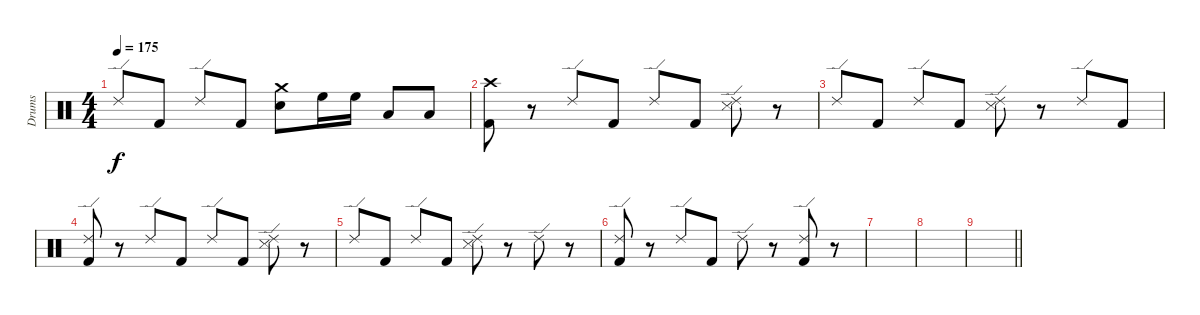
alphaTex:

\track ("Drums" "Drums") {instrument percussion}
\staff {score}
\articulation defaults
\ts (4 4)
\tempo 175
\clef neutral
\ks c "Ride (edge) 2".8{dy f} "Kick (hit) 2".8 "Ride (edge) 2".8 "Kick (hit) 2".8
("Crash medium (hit)" "Snare (hit) 2").8 "High Floor Tom (hit)".16 "High Floor Tom (hit)".16 "Low Floor Tom (hit)".8 "Low Floor Tom (hit)".8 |
("Crash high (hit)" "Kick (hit) 2").8 r.8 "Ride (edge) 2".8 "Kick (hit) 2".8 "Ride (edge) 2".8 "Kick (hit) 2".8 ("Ride (edge) 2" "Snare (side stick) 3").8 r.8 |
"Ride (edge) 2".8 "Kick (hit) 2".8 "Ride (edge) 2".8 "Kick (hit) 2".8 ("Ride (edge) 2" "Snare (side stick) 3").8 r.8 "Ride (edge) 2".8 "Kick (hit) 2".8 |
("Ride (edge) 2" "Kick (hit) 2").8 r.8 "Ride (edge) 2".8 "Kick (hit) 2".8 "Ride (edge) 2".8 "Kick (hit) 2".8 ("Ride (edge) 2" "Snare (side stick) 3").8 r.8 |
"Ride (edge) 2".8 "Kick (hit) 2".8 "Ride (edge) 2".8 "Kick (hit) 2".8 ("Ride (edge) 2" "Snare (side stick) 3").8 r.8 "Ride (edge) 2".8 r.8 |
("Ride (edge) 2" "Kick (hit) 2").8 r.8 "Ride (edge) 2".8 "Kick (hit) 2".8 "Ride (edge) 2".8 r.8 ("Ride (edge) 2" "Kick (hit) 2").8 r.8 |
|
|
\barLineRight lightlight
